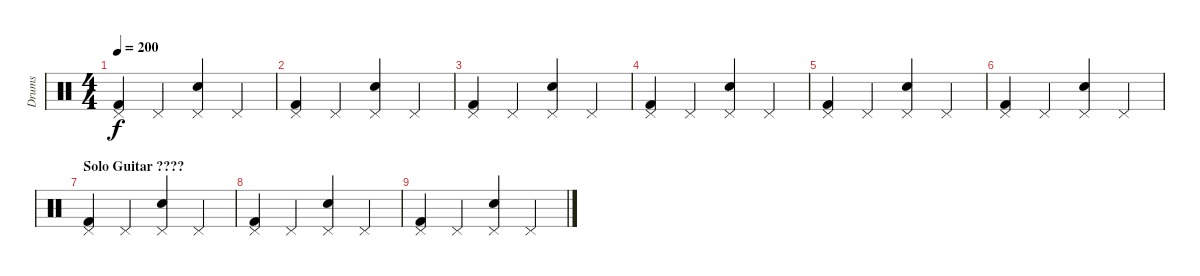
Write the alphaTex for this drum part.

\track ("Drums" "Drums") {instrument percussion}
\staff {score}
\articulation defaults
\ts (4 4)
\tempo 200
\clef neutral
\ks c
("Pedal Hi-Hat (hit)" "Kick (hit) 2").4{dy f} "Pedal Hi-Hat (hit)".4 ("Pedal Hi-Hat (hit)" "Snare (hit) 2").4 "Pedal Hi-Hat (hit)".4 |
("Pedal Hi-Hat (hit)" "Kick (hit) 2").4 "Pedal Hi-Hat (hit)".4 ("Pedal Hi-Hat (hit)" "Snare (hit) 2").4 "Pedal Hi-Hat (hit)".4 |
("Pedal Hi-Hat (hit)" "Kick (hit) 2").4 "Pedal Hi-Hat (hit)".4 ("Pedal Hi-Hat (hit)" "Snare (hit) 2").4 "Pedal Hi-Hat (hit)".4 |
("Pedal Hi-Hat (hit)" "Kick (hit) 2").4 "Pedal Hi-Hat (hit)".4 ("Pedal Hi-Hat (hit)" "Snare (hit) 2").4 "Pedal Hi-Hat (hit)".4 |
("Pedal Hi-Hat (hit)" "Kick (hit) 2").4 "Pedal Hi-Hat (hit)".4 ("Pedal Hi-Hat (hit)" "Snare (hit) 2").4 "Pedal Hi-Hat (hit)".4 |
("Pedal Hi-Hat (hit)" "Kick (hit) 2").4 "Pedal Hi-Hat (hit)".4 ("Pedal Hi-Hat (hit)" "Snare (hit) 2").4 "Pedal Hi-Hat (hit)".4 |
\section ("" "Solo Guitar ????  ")
("Pedal Hi-Hat (hit)" "Kick (hit) 2").4 "Pedal Hi-Hat (hit)".4 ("Pedal Hi-Hat (hit)" "Snare (hit) 2").4 "Pedal Hi-Hat (hit)".4 |
("Pedal Hi-Hat (hit)" "Kick (hit) 2").4 "Pedal Hi-Hat (hit)".4 ("Pedal Hi-Hat (hit)" "Snare (hit) 2").4 "Pedal Hi-Hat (hit)".4 |
("Pedal Hi-Hat (hit)" "Kick (hit) 2").4 "Pedal Hi-Hat (hit)".4 ("Pedal Hi-Hat (hit)" "Snare (hit) 2").4 "Pedal Hi-Hat (hit)".4
